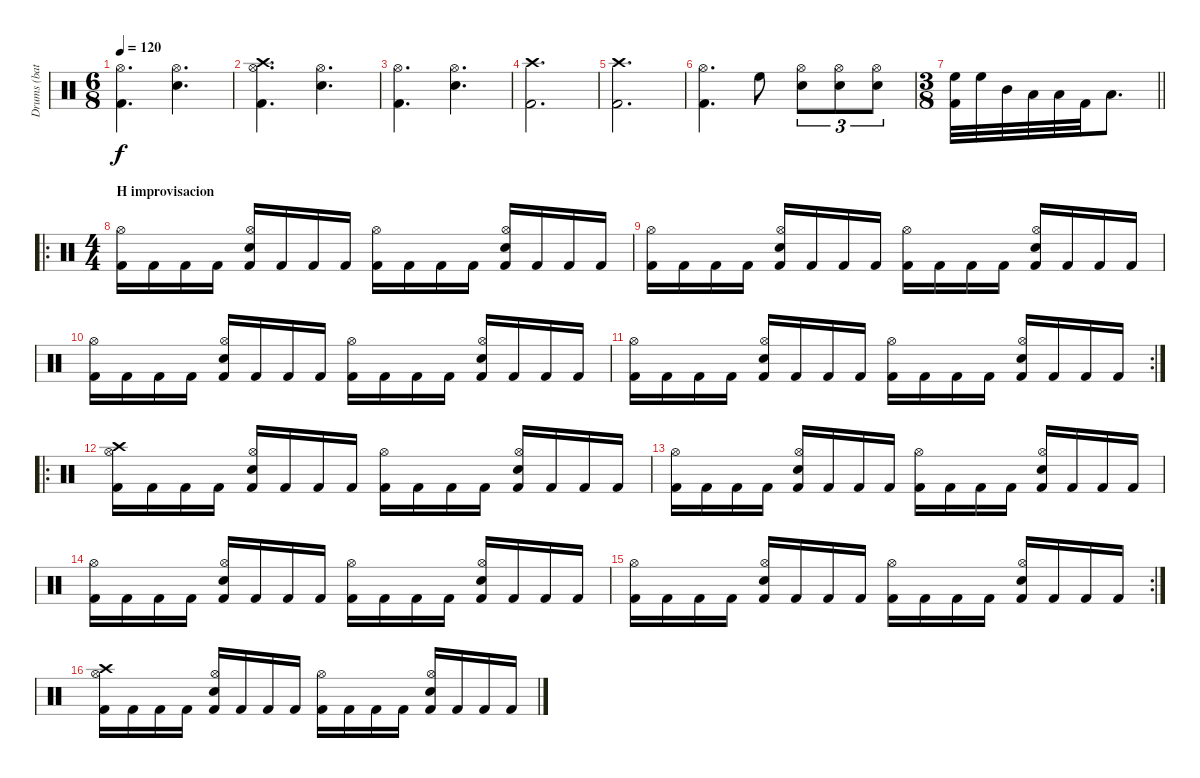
\track ("Drums (bateria)" "Drums (bat") {instrument percussion}
\staff {score}
\articulation defaults
\ts (6 8)
\tempo 120
\clef neutral
\ks c
("Kick (hit) 2" "Hi-Hat (open)").4{d dy f} ("Snare (hit) 2" "Hi-Hat (open)").4{d} |
("Kick (hit) 2" "Hi-Hat (open)" "Crash high (hit)").4{d} ("Snare (hit) 2" "Hi-Hat (open)").4{d} |
("Kick (hit) 2" "Hi-Hat (open)").4{d} ("Snare (hit) 2" "Hi-Hat (open)").4{d} |
("Kick (hit) 2" "Crash high (hit)").2{d} |
("Kick (hit) 2" "Crash high (hit)").2{d} |
("Kick (hit) 2" "Hi-Hat (open)").4{d} "High Floor Tom (hit)".8 ("Snare (hit) 2" "Hi-Hat (open)").8{tu (3 2)} ("Snare (hit) 2" "Hi-Hat (open)").8{tu (3 2)} ("Snare (hit) 2" "Hi-Hat (open)").8{tu (3 2)} |
\ts (3 8)
\barLineRight lightlight
("Kick (hit) 2" "High Floor Tom (hit)").32 "High Floor Tom (hit)".32 "Mid Tom (hit)".32 "Low Tom (hit)".32 "Low Tom (hit)".32 "Kick (hit) 2".32 "Low Tom (hit)".8{d} |
\ro
\ts (4 4)
\section ("" "H improvisacion")
("Kick (hit) 2" "Hi-Hat (open)").16 "Kick (hit) 2".16 "Kick (hit) 2".16 "Kick (hit) 2".16 ("Kick (hit) 2" "Snare (hit) 2" "Hi-Hat (open)").16 "Kick (hit) 2".16 "Kick (hit) 2".16 "Kick (hit) 2".16 ("Kick (hit) 2" "Hi-Hat (open)").16 "Kick (hit) 2".16 "Kick (hit) 2".16 "Kick (hit) 2".16 ("Kick (hit) 2" "Snare (hit) 2" "Hi-Hat (open)").16 "Kick (hit) 2".16 "Kick (hit) 2".16 "Kick (hit) 2".16 |
("Kick (hit) 2" "Hi-Hat (open)").16 "Kick (hit) 2".16 "Kick (hit) 2".16 "Kick (hit) 2".16 ("Kick (hit) 2" "Snare (hit) 2" "Hi-Hat (open)").16 "Kick (hit) 2".16 "Kick (hit) 2".16 "Kick (hit) 2".16 ("Kick (hit) 2" "Hi-Hat (open)").16 "Kick (hit) 2".16 "Kick (hit) 2".16 "Kick (hit) 2".16 ("Kick (hit) 2" "Snare (hit) 2" "Hi-Hat (open)").16 "Kick (hit) 2".16 "Kick (hit) 2".16 "Kick (hit) 2".16 |
("Kick (hit) 2" "Hi-Hat (open)").16 "Kick (hit) 2".16 "Kick (hit) 2".16 "Kick (hit) 2".16 ("Kick (hit) 2" "Snare (hit) 2" "Hi-Hat (open)").16 "Kick (hit) 2".16 "Kick (hit) 2".16 "Kick (hit) 2".16 ("Kick (hit) 2" "Hi-Hat (open)").16 "Kick (hit) 2".16 "Kick (hit) 2".16 "Kick (hit) 2".16 ("Kick (hit) 2" "Snare (hit) 2" "Hi-Hat (open)").16 "Kick (hit) 2".16 "Kick (hit) 2".16 "Kick (hit) 2".16 |
\rc 2
("Kick (hit) 2" "Hi-Hat (open)").16 "Kick (hit) 2".16 "Kick (hit) 2".16 "Kick (hit) 2".16 ("Kick (hit) 2" "Snare (hit) 2" "Hi-Hat (open)").16 "Kick (hit) 2".16 "Kick (hit) 2".16 "Kick (hit) 2".16 ("Kick (hit) 2" "Hi-Hat (open)").16 "Kick (hit) 2".16 "Kick (hit) 2".16 "Kick (hit) 2".16 ("Kick (hit) 2" "Snare (hit) 2" "Hi-Hat (open)").16 "Kick (hit) 2".16 "Kick (hit) 2".16 "Kick (hit) 2".16 |
\ro
("Kick (hit) 2" "Hi-Hat (open)" "Crash high (hit)").16 "Kick (hit) 2".16 "Kick (hit) 2".16 "Kick (hit) 2".16 ("Kick (hit) 2" "Snare (hit) 2" "Hi-Hat (open)").16 "Kick (hit) 2".16 "Kick (hit) 2".16 "Kick (hit) 2".16 ("Kick (hit) 2" "Hi-Hat (open)").16 "Kick (hit) 2".16 "Kick (hit) 2".16 "Kick (hit) 2".16 ("Kick (hit) 2" "Snare (hit) 2" "Hi-Hat (open)").16 "Kick (hit) 2".16 "Kick (hit) 2".16 "Kick (hit) 2".16 |
("Kick (hit) 2" "Hi-Hat (open)").16 "Kick (hit) 2".16 "Kick (hit) 2".16 "Kick (hit) 2".16 ("Kick (hit) 2" "Snare (hit) 2" "Hi-Hat (open)").16 "Kick (hit) 2".16 "Kick (hit) 2".16 "Kick (hit) 2".16 ("Kick (hit) 2" "Hi-Hat (open)").16 "Kick (hit) 2".16 "Kick (hit) 2".16 "Kick (hit) 2".16 ("Kick (hit) 2" "Snare (hit) 2" "Hi-Hat (open)").16 "Kick (hit) 2".16 "Kick (hit) 2".16 "Kick (hit) 2".16 |
("Kick (hit) 2" "Hi-Hat (open)").16 "Kick (hit) 2".16 "Kick (hit) 2".16 "Kick (hit) 2".16 ("Kick (hit) 2" "Snare (hit) 2" "Hi-Hat (open)").16 "Kick (hit) 2".16 "Kick (hit) 2".16 "Kick (hit) 2".16 ("Kick (hit) 2" "Hi-Hat (open)").16 "Kick (hit) 2".16 "Kick (hit) 2".16 "Kick (hit) 2".16 ("Kick (hit) 2" "Snare (hit) 2" "Hi-Hat (open)").16 "Kick (hit) 2".16 "Kick (hit) 2".16 "Kick (hit) 2".16 |
\rc 2
("Kick (hit) 2" "Hi-Hat (open)").16 "Kick (hit) 2".16 "Kick (hit) 2".16 "Kick (hit) 2".16 ("Kick (hit) 2" "Snare (hit) 2" "Hi-Hat (open)").16 "Kick (hit) 2".16 "Kick (hit) 2".16 "Kick (hit) 2".16 ("Kick (hit) 2" "Hi-Hat (open)").16 "Kick (hit) 2".16 "Kick (hit) 2".16 "Kick (hit) 2".16 ("Kick (hit) 2" "Snare (hit) 2" "Hi-Hat (open)").16 "Kick (hit) 2".16 "Kick (hit) 2".16 "Kick (hit) 2".16 |
("Kick (hit) 2" "Hi-Hat (open)" "Crash high (hit)").16 "Kick (hit) 2".16 "Kick (hit) 2".16 "Kick (hit) 2".16 ("Kick (hit) 2" "Snare (hit) 2" "Hi-Hat (open)").16 "Kick (hit) 2".16 "Kick (hit) 2".16 "Kick (hit) 2".16 ("Kick (hit) 2" "Hi-Hat (open)").16 "Kick (hit) 2".16 "Kick (hit) 2".16 "Kick (hit) 2".16 ("Kick (hit) 2" "Snare (hit) 2" "Hi-Hat (open)").16 "Kick (hit) 2".16 "Kick (hit) 2".16 "Kick (hit) 2".16
